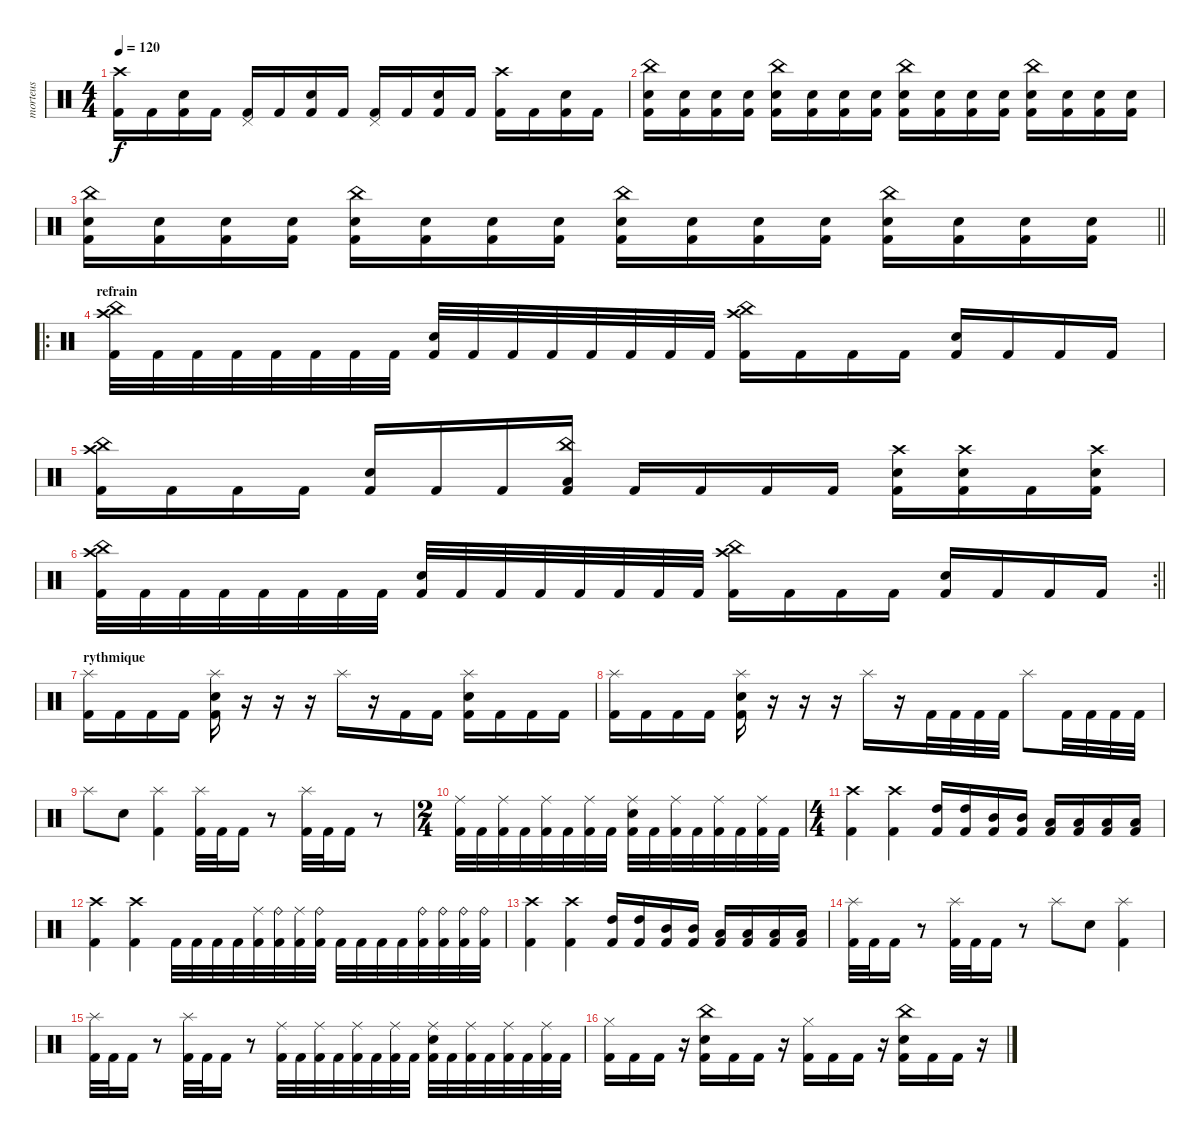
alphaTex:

\track ("morteus" "morteus") {instrument percussion}
\staff {score}
\articulation defaults
\ts (4 4)
\tempo 120
\clef neutral
\ks c
("Crash high (hit)" "Kick (hit) 2").16{dy f} "Kick (hit) 2".16 ("Electric Snare (hit)" "Kick (hit) 2").16 "Kick (hit) 2".16 ("Pedal Hi-Hat (hit)" "Kick (hit) 2").16 "Kick (hit) 2".16 ("Electric Snare (hit)" "Kick (hit) 2").16 "Kick (hit) 2".16 ("Pedal Hi-Hat (hit)" "Kick (hit) 2").16 "Kick (hit) 2".16 ("Electric Snare (hit)" "Kick (hit) 2").16 "Kick (hit) 2".16 ("Crash high (hit)" "Kick (hit) 2").16 "Kick (hit) 2".16 ("Electric Snare (hit)" "Kick (hit) 2").16 "Kick (hit) 2".16 |
("China (hit)" "Electric Snare (hit)" "Kick (hit) 2").16 ("Electric Snare (hit)" "Kick (hit) 2").16 ("Electric Snare (hit)" "Kick (hit) 2").16 ("Electric Snare (hit)" "Kick (hit) 2").16 ("China (hit)" "Electric Snare (hit)" "Kick (hit) 2").16 ("Electric Snare (hit)" "Kick (hit) 2").16 ("Electric Snare (hit)" "Kick (hit) 2").16 ("Electric Snare (hit)" "Kick (hit) 2").16 ("China (hit)" "Electric Snare (hit)" "Kick (hit) 2").16 ("Electric Snare (hit)" "Kick (hit) 2").16 ("Electric Snare (hit)" "Kick (hit) 2").16 ("Electric Snare (hit)" "Kick (hit) 2").16 ("China (hit)" "Electric Snare (hit)" "Kick (hit) 2").16 ("Electric Snare (hit)" "Kick (hit) 2").16 ("Electric Snare (hit)" "Kick (hit) 2").16 ("Electric Snare (hit)" "Kick (hit) 2").16 |
\barLineRight lightlight
("China (hit)" "Electric Snare (hit)" "Kick (hit) 2").16 ("Electric Snare (hit)" "Kick (hit) 2").16 ("Electric Snare (hit)" "Kick (hit) 2").16 ("Electric Snare (hit)" "Kick (hit) 2").16 ("China (hit)" "Electric Snare (hit)" "Kick (hit) 2").16 ("Electric Snare (hit)" "Kick (hit) 2").16 ("Electric Snare (hit)" "Kick (hit) 2").16 ("Electric Snare (hit)" "Kick (hit) 2").16 ("China (hit)" "Electric Snare (hit)" "Kick (hit) 2").16 ("Electric Snare (hit)" "Kick (hit) 2").16 ("Electric Snare (hit)" "Kick (hit) 2").16 ("Electric Snare (hit)" "Kick (hit) 2").16 ("China (hit)" "Electric Snare (hit)" "Kick (hit) 2").16 ("Electric Snare (hit)" "Kick (hit) 2").16 ("Electric Snare (hit)" "Kick (hit) 2").16 ("Electric Snare (hit)" "Kick (hit) 2").16 |
\ro
\section ("" "refrain")
("China (hit)" "Crash high (hit)" "Kick (hit) 2").32 "Kick (hit) 2".32 "Kick (hit) 2".32 "Kick (hit) 2".32 "Kick (hit) 2".32 "Kick (hit) 2".32 "Kick (hit) 2".32 "Kick (hit) 2".32 ("Electric Snare (hit)" "Kick (hit) 2").32 "Kick (hit) 2".32 "Kick (hit) 2".32 "Kick (hit) 2".32 "Kick (hit) 2".32 "Kick (hit) 2".32 "Kick (hit) 2".32 "Kick (hit) 2".32 ("China (hit)" "Crash high (hit)" "Kick (hit) 2").16 "Kick (hit) 2".16 "Kick (hit) 2".16 "Kick (hit) 2".16 ("Electric Snare (hit)" "Kick (hit) 2").16 "Kick (hit) 2".16 "Kick (hit) 2".16 "Kick (hit) 2".16 |
("China (hit)" "Crash high (hit)" "Kick (hit) 2").16 "Kick (hit) 2".16 "Kick (hit) 2".16 "Kick (hit) 2".16 ("Electric Snare (hit)" "Kick (hit) 2").16 "Kick (hit) 2".16 "Kick (hit) 2".16 ("China (hit)" "Low Tom (hit)" "Kick (hit) 2").16 "Kick (hit) 2".16 "Kick (hit) 2".16 "Kick (hit) 2".16 "Kick (hit) 2".16 ("Crash high (hit)" "Electric Snare (hit)" "Kick (hit) 2").16 ("Crash high (hit)" "Electric Snare (hit)" "Kick (hit) 2").16 "Kick (hit) 2".16 ("Crash high (hit)" "Electric Snare (hit)" "Kick (hit) 2").16 |
\rc 2
\barLineRight lightlight
("China (hit)" "Crash high (hit)" "Kick (hit) 2").32 "Kick (hit) 2".32 "Kick (hit) 2".32 "Kick (hit) 2".32 "Kick (hit) 2".32 "Kick (hit) 2".32 "Kick (hit) 2".32 "Kick (hit) 2".32 ("Electric Snare (hit)" "Kick (hit) 2").32 "Kick (hit) 2".32 "Kick (hit) 2".32 "Kick (hit) 2".32 "Kick (hit) 2".32 "Kick (hit) 2".32 "Kick (hit) 2".32 "Kick (hit) 2".32 ("China (hit)" "Crash high (hit)" "Kick (hit) 2").16 "Kick (hit) 2".16 "Kick (hit) 2".16 "Kick (hit) 2".16 ("Electric Snare (hit)" "Kick (hit) 2").16 "Kick (hit) 2".16 "Kick (hit) 2".16 "Kick (hit) 2".16 |
\section ("" "rythmique")
("Splash (hit)" "Kick (hit) 2").16 "Kick (hit) 2".16 "Kick (hit) 2".16 "Kick (hit) 2".16 ("Splash (hit)" "Electric Snare (hit)" "Kick (hit) 2").16 r.16 r.16 r.16 "Splash (hit)".16 r.16 "Kick (hit) 2".16 "Kick (hit) 2".16 ("Splash (hit)" "Electric Snare (hit)" "Kick (hit) 2").16 "Kick (hit) 2".16 "Kick (hit) 2".16 "Kick (hit) 2".16 |
("Splash (hit)" "Kick (hit) 2").16 "Kick (hit) 2".16 "Kick (hit) 2".16 "Kick (hit) 2".16 ("Splash (hit)" "Electric Snare (hit)" "Kick (hit) 2").16 r.16 r.16 r.16 "Splash (hit)".16 r.16 "Kick (hit) 2".32 "Kick (hit) 2".32 "Kick (hit) 2".32 "Kick (hit) 2".32 "Splash (hit)".8 "Kick (hit) 2".32 "Kick (hit) 2".32 "Kick (hit) 2".32 "Kick (hit) 2".32 |
"Splash (hit)".8 "Electric Snare (hit)".8 ("Splash (hit)" "Kick (hit) 2").4 ("Splash (hit)" "Kick (hit) 2").32 "Kick (hit) 2".32 "Kick (hit) 2".16 r.8 ("Splash (hit)" "Kick (hit) 2").32 "Kick (hit) 2".32 "Kick (hit) 2".16 r.8 |
\ts (2 4)
("Ride (middle)" "Kick (hit) 2").32 "Kick (hit) 2".32 ("Ride (middle)" "Kick (hit) 2").32 "Kick (hit) 2".32 ("Ride (middle)" "Kick (hit) 2").32 "Kick (hit) 2".32 ("Ride (middle)" "Kick (hit) 2").32 "Kick (hit) 2".32 ("Electric Snare (hit)" "Ride (middle)" "Kick (hit) 2").32 "Kick (hit) 2".32 ("Ride (middle)" "Kick (hit) 2").32 "Kick (hit) 2".32 ("Ride (middle)" "Kick (hit) 2").32 "Kick (hit) 2".32 ("Ride (middle)" "Kick (hit) 2").32 "Kick (hit) 2".32 |
\ts (4 4)
("Crash high (hit)" "Kick (hit) 2").4 ("Crash high (hit)" "Kick (hit) 2").4 ("High Tom (hit)" "Kick (hit) 2").16 ("High Tom (hit)" "Kick (hit) 2").16 ("Mid Tom (hit)" "Kick (hit) 2").16 ("Mid Tom (hit)" "Kick (hit) 2").16 ("Low Tom (hit)" "Kick (hit) 2").16 ("Low Tom (hit)" "Kick (hit) 2").16 ("Low Tom (hit)" "Kick (hit) 2").16 ("Low Tom (hit)" "Kick (hit) 2").16 |
("Crash high (hit)" "Kick (hit) 2").4 ("Crash high (hit)" "Kick (hit) 2").4 "Kick (hit) 2".32 "Kick (hit) 2".32 "Kick (hit) 2".32 "Kick (hit) 2".32 ("Ride (middle)" "Kick (hit) 2").32 ("Ride (bell)" "Kick (hit) 2").32 ("Ride (middle)" "Kick (hit) 2").32 ("Ride (bell)" "Kick (hit) 2").32 "Kick (hit) 2".32 "Kick (hit) 2".32 "Kick (hit) 2".32 "Kick (hit) 2".32 ("Ride (bell)" "Kick (hit) 2").32 ("Ride (bell)" "Kick (hit) 2").32 ("Ride (bell)" "Kick (hit) 2").32 ("Ride (bell)" "Kick (hit) 2").32 |
("Crash high (hit)" "Kick (hit) 2").4 ("Crash high (hit)" "Kick (hit) 2").4 ("High Tom (hit)" "Kick (hit) 2").16 ("High Tom (hit)" "Kick (hit) 2").16 ("Mid Tom (hit)" "Kick (hit) 2").16 ("Mid Tom (hit)" "Kick (hit) 2").16 ("Low Tom (hit)" "Kick (hit) 2").16 ("Low Tom (hit)" "Kick (hit) 2").16 ("Low Tom (hit)" "Kick (hit) 2").16 ("Low Tom (hit)" "Kick (hit) 2").16 |
("Splash (hit)" "Kick (hit) 2").32 "Kick (hit) 2".32 "Kick (hit) 2".16 r.8 ("Splash (hit)" "Kick (hit) 2").32 "Kick (hit) 2".32 "Kick (hit) 2".16 r.8 "Splash (hit)".8 "Electric Snare (hit)".8 ("Splash (hit)" "Kick (hit) 2").4 |
("Splash (hit)" "Kick (hit) 2").32 "Kick (hit) 2".32 "Kick (hit) 2".16 r.8 ("Splash (hit)" "Kick (hit) 2").32 "Kick (hit) 2".32 "Kick (hit) 2".16 r.8 ("Ride (middle)" "Kick (hit) 2").32 "Kick (hit) 2".32 ("Ride (middle)" "Kick (hit) 2").32 "Kick (hit) 2".32 ("Ride (middle)" "Kick (hit) 2").32 "Kick (hit) 2".32 ("Ride (middle)" "Kick (hit) 2").32 "Kick (hit) 2".32 ("Electric Snare (hit)" "Ride (middle)" "Kick (hit) 2").32 "Kick (hit) 2".32 ("Ride (middle)" "Kick (hit) 2").32 "Kick (hit) 2".32 ("Ride (middle)" "Kick (hit) 2").32 "Kick (hit) 2".32 ("Ride (middle)" "Kick (hit) 2").32 "Kick (hit) 2".32 |
("Hi-Hat (closed)" "Kick (hit) 2").16 "Kick (hit) 2".16 "Kick (hit) 2".16 r.16 ("China (hit)" "Electric Snare (hit)" "Kick (hit) 2").16 "Kick (hit) 2".16 "Kick (hit) 2".16 r.16 ("Hi-Hat (closed)" "Kick (hit) 2").16 "Kick (hit) 2".16 "Kick (hit) 2".16 r.16 ("China (hit)" "Electric Snare (hit)" "Kick (hit) 2").16 "Kick (hit) 2".16 "Kick (hit) 2".16 r.16
